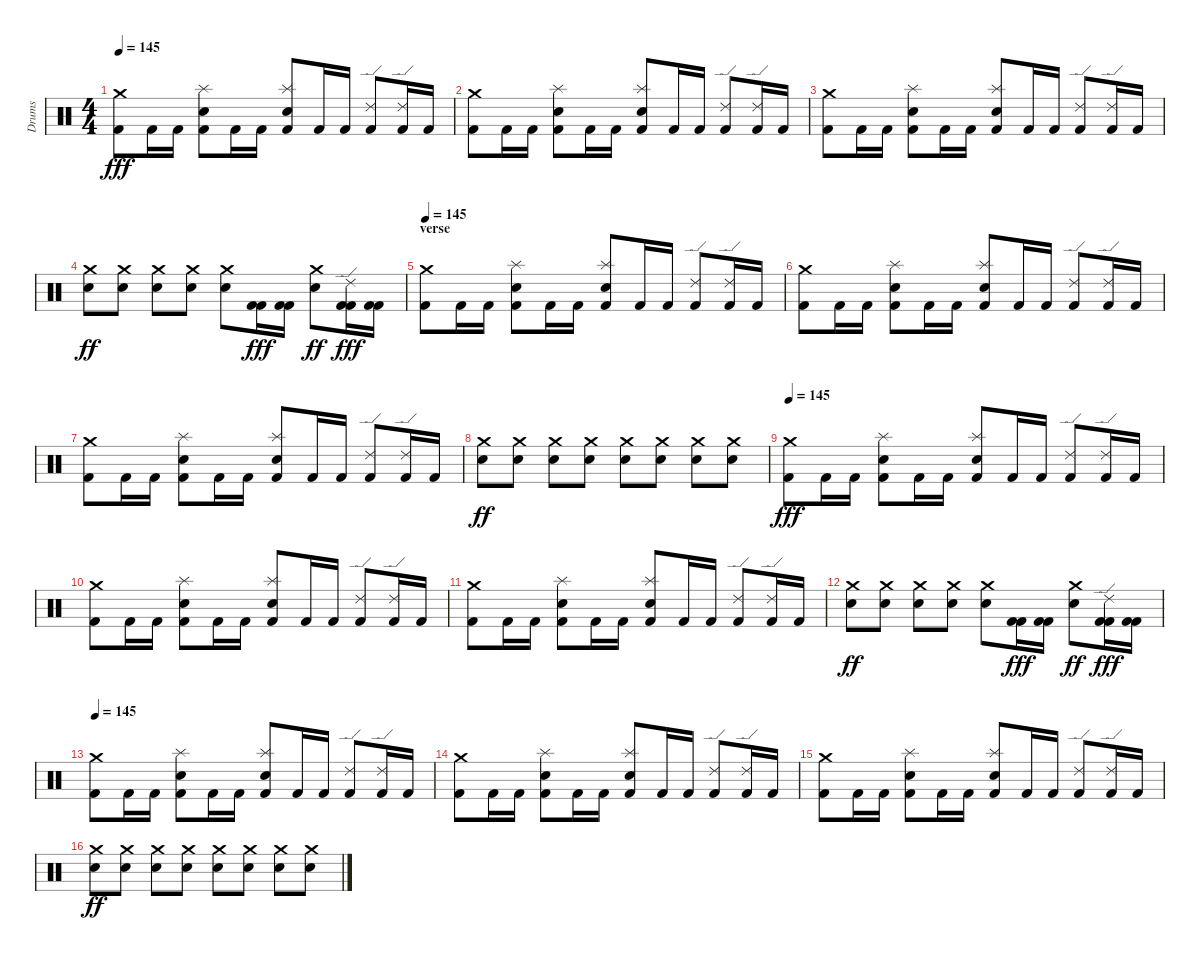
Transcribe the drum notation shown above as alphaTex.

\track ("Drums" "Drums") {instrument percussion}
\staff {score}
\articulation defaults
\ts (4 4)
\tempo 145
\clef neutral
\ks c
("Crash medium (hit)" "Kick (hit) 2").8{dy fff} "Kick (hit) 2".16 "Kick (hit) 2".16 ("Electric Snare (hit)" "Kick (hit) 2" "Splash (hit)").8{balance 0} "Kick (hit) 2".16{balance 8} "Kick (hit) 2".16 ("Snare (hit) 2" "Kick (hit) 2" "Splash (hit)").8{balance 16} "Kick (hit) 2".16{balance 8} "Kick (hit) 2".16 ("Ride (edge) 2" "Kick (hit) 2").8 ("Ride (edge) 2" "Kick (hit) 2").16 "Kick (hit) 2".16 |
("Crash medium (hit)" "Kick (hit) 2").8 "Kick (hit) 2".16 "Kick (hit) 2".16 ("Electric Snare (hit)" "Kick (hit) 2" "Splash (hit)").8{balance 0} "Kick (hit) 2".16{balance 8} "Kick (hit) 2".16 ("Snare (hit) 2" "Kick (hit) 2" "Splash (hit)").8{balance 16} "Kick (hit) 2".16{balance 8} "Kick (hit) 2".16 ("Ride (edge) 2" "Kick (hit) 2").8 ("Ride (edge) 2" "Kick (hit) 2").16 "Kick (hit) 2".16 |
("Crash medium (hit)" "Kick (hit) 2").8 "Kick (hit) 2".16 "Kick (hit) 2".16 ("Electric Snare (hit)" "Kick (hit) 2" "Splash (hit)").8{balance 0} "Kick (hit) 2".16{balance 8} "Kick (hit) 2".16 ("Snare (hit) 2" "Kick (hit) 2" "Splash (hit)").8{balance 16} "Kick (hit) 2".16{balance 8} "Kick (hit) 2".16 ("Ride (edge) 2" "Kick (hit) 2").8 ("Ride (edge) 2" "Kick (hit) 2").16 "Kick (hit) 2".16 |
("Crash medium (hit)" "Electric Snare (hit)").8{dy ff} ("Crash medium (hit)" "Electric Snare (hit)").8 ("Crash medium (hit)" "Electric Snare (hit)").8 ("Crash medium (hit)" "Electric Snare (hit)").8 ("Crash medium (hit)" "Electric Snare (hit)").8 ("Kick (hit) 2" "Kick (hit) 2").16{dy fff} ("Kick (hit) 2" "Kick (hit) 2").16 ("Crash medium (hit)" "Electric Snare (hit)").8{dy ff} ("Ride (edge) 2" "Kick (hit) 2" "Kick (hit) 2").16{dy fff} ("Kick (hit) 2" "Kick (hit) 2").16 |
\section ("" "verse")
\tempo 145
("Crash medium (hit)" "Kick (hit) 2").8 "Kick (hit) 2".16 "Kick (hit) 2".16 ("Electric Snare (hit)" "Kick (hit) 2" "Splash (hit)").8{balance 0} "Kick (hit) 2".16{balance 8} "Kick (hit) 2".16 ("Snare (hit) 2" "Kick (hit) 2" "Splash (hit)").8{balance 16} "Kick (hit) 2".16{balance 8} "Kick (hit) 2".16 ("Ride (edge) 2" "Kick (hit) 2").8 ("Ride (edge) 2" "Kick (hit) 2").16 "Kick (hit) 2".16 |
("Crash medium (hit)" "Kick (hit) 2").8 "Kick (hit) 2".16 "Kick (hit) 2".16 ("Electric Snare (hit)" "Kick (hit) 2" "Splash (hit)").8{balance 0} "Kick (hit) 2".16{balance 8} "Kick (hit) 2".16 ("Snare (hit) 2" "Kick (hit) 2" "Splash (hit)").8{balance 16} "Kick (hit) 2".16{balance 8} "Kick (hit) 2".16 ("Ride (edge) 2" "Kick (hit) 2").8 ("Ride (edge) 2" "Kick (hit) 2").16 "Kick (hit) 2".16 |
("Crash medium (hit)" "Kick (hit) 2").8 "Kick (hit) 2".16 "Kick (hit) 2".16 ("Electric Snare (hit)" "Kick (hit) 2" "Splash (hit)").8{balance 0} "Kick (hit) 2".16{balance 8} "Kick (hit) 2".16 ("Snare (hit) 2" "Kick (hit) 2" "Splash (hit)").8{balance 16} "Kick (hit) 2".16{balance 8} "Kick (hit) 2".16 ("Ride (edge) 2" "Kick (hit) 2").8 ("Ride (edge) 2" "Kick (hit) 2").16 "Kick (hit) 2".16 |
("Crash medium (hit)" "Electric Snare (hit)").8{dy ff} ("Crash medium (hit)" "Electric Snare (hit)").8 ("Crash medium (hit)" "Electric Snare (hit)").8 ("Crash medium (hit)" "Electric Snare (hit)").8 ("Crash medium (hit)" "Electric Snare (hit)").8 ("Crash medium (hit)" "Electric Snare (hit)").8 ("Crash medium (hit)" "Electric Snare (hit)").8 ("Crash medium (hit)" "Electric Snare (hit)").8 |
\tempo 145
("Crash medium (hit)" "Kick (hit) 2").8{dy fff} "Kick (hit) 2".16 "Kick (hit) 2".16 ("Electric Snare (hit)" "Kick (hit) 2" "Splash (hit)").8{balance 0} "Kick (hit) 2".16{balance 8} "Kick (hit) 2".16 ("Snare (hit) 2" "Kick (hit) 2" "Splash (hit)").8{balance 16} "Kick (hit) 2".16{balance 8} "Kick (hit) 2".16 ("Ride (edge) 2" "Kick (hit) 2").8 ("Ride (edge) 2" "Kick (hit) 2").16 "Kick (hit) 2".16 |
("Crash medium (hit)" "Kick (hit) 2").8 "Kick (hit) 2".16 "Kick (hit) 2".16 ("Electric Snare (hit)" "Kick (hit) 2" "Splash (hit)").8{balance 0} "Kick (hit) 2".16{balance 8} "Kick (hit) 2".16 ("Snare (hit) 2" "Kick (hit) 2" "Splash (hit)").8{balance 16} "Kick (hit) 2".16{balance 8} "Kick (hit) 2".16 ("Ride (edge) 2" "Kick (hit) 2").8 ("Ride (edge) 2" "Kick (hit) 2").16 "Kick (hit) 2".16 |
("Crash medium (hit)" "Kick (hit) 2").8 "Kick (hit) 2".16 "Kick (hit) 2".16 ("Electric Snare (hit)" "Kick (hit) 2" "Splash (hit)").8{balance 0} "Kick (hit) 2".16{balance 8} "Kick (hit) 2".16 ("Snare (hit) 2" "Kick (hit) 2" "Splash (hit)").8{balance 16} "Kick (hit) 2".16{balance 8} "Kick (hit) 2".16 ("Ride (edge) 2" "Kick (hit) 2").8 ("Ride (edge) 2" "Kick (hit) 2").16 "Kick (hit) 2".16 |
("Crash medium (hit)" "Electric Snare (hit)").8{dy ff} ("Crash medium (hit)" "Electric Snare (hit)").8 ("Crash medium (hit)" "Electric Snare (hit)").8 ("Crash medium (hit)" "Electric Snare (hit)").8 ("Crash medium (hit)" "Electric Snare (hit)").8 ("Kick (hit) 2" "Kick (hit) 2").16{dy fff} ("Kick (hit) 2" "Kick (hit) 2").16 ("Crash medium (hit)" "Electric Snare (hit)").8{dy ff} ("Ride (edge) 2" "Kick (hit) 2" "Kick (hit) 2").16{dy fff} ("Kick (hit) 2" "Kick (hit) 2").16 |
\tempo 145
("Crash medium (hit)" "Kick (hit) 2").8 "Kick (hit) 2".16 "Kick (hit) 2".16 ("Electric Snare (hit)" "Kick (hit) 2" "Splash (hit)").8{balance 0} "Kick (hit) 2".16{balance 8} "Kick (hit) 2".16 ("Snare (hit) 2" "Kick (hit) 2" "Splash (hit)").8{balance 16} "Kick (hit) 2".16{balance 8} "Kick (hit) 2".16 ("Ride (edge) 2" "Kick (hit) 2").8 ("Ride (edge) 2" "Kick (hit) 2").16 "Kick (hit) 2".16 |
("Crash medium (hit)" "Kick (hit) 2").8 "Kick (hit) 2".16 "Kick (hit) 2".16 ("Electric Snare (hit)" "Kick (hit) 2" "Splash (hit)").8{balance 0} "Kick (hit) 2".16{balance 8} "Kick (hit) 2".16 ("Snare (hit) 2" "Kick (hit) 2" "Splash (hit)").8{balance 16} "Kick (hit) 2".16{balance 8} "Kick (hit) 2".16 ("Ride (edge) 2" "Kick (hit) 2").8 ("Ride (edge) 2" "Kick (hit) 2").16 "Kick (hit) 2".16 |
("Crash medium (hit)" "Kick (hit) 2").8 "Kick (hit) 2".16 "Kick (hit) 2".16 ("Electric Snare (hit)" "Kick (hit) 2" "Splash (hit)").8{balance 0} "Kick (hit) 2".16{balance 8} "Kick (hit) 2".16 ("Snare (hit) 2" "Kick (hit) 2" "Splash (hit)").8{balance 16} "Kick (hit) 2".16{balance 8} "Kick (hit) 2".16 ("Ride (edge) 2" "Kick (hit) 2").8 ("Ride (edge) 2" "Kick (hit) 2").16 "Kick (hit) 2".16 |
("Crash medium (hit)" "Electric Snare (hit)").8{dy ff} ("Crash medium (hit)" "Electric Snare (hit)").8 ("Crash medium (hit)" "Electric Snare (hit)").8 ("Crash medium (hit)" "Electric Snare (hit)").8 ("Crash medium (hit)" "Electric Snare (hit)").8 ("Crash medium (hit)" "Electric Snare (hit)").8 ("Crash medium (hit)" "Electric Snare (hit)").8 ("Crash medium (hit)" "Electric Snare (hit)").8
